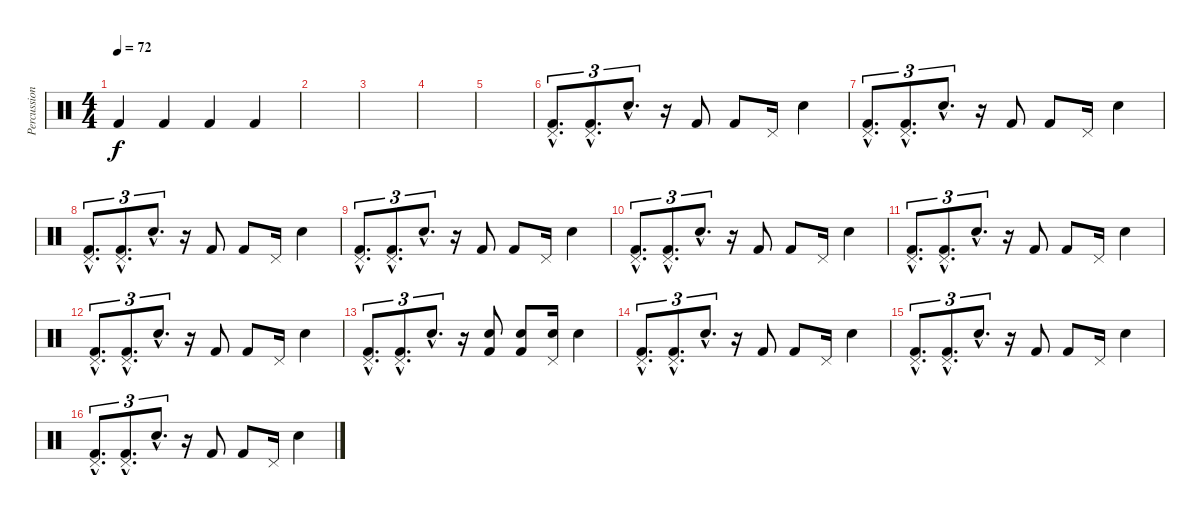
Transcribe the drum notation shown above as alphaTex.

\track ("Percussion" "Percussion") {instrument percussion}
\staff {score}
\articulation defaults
\ts (4 4)
\tempo 72
\clef neutral
\ks c "Kick (hit) 2".4{dy f} "Kick (hit) 2".4 "Kick (hit) 2".4 "Kick (hit) 2".4
|
|
|
|
|
("Kick (hit) 2"{hac} "Pedal Hi-Hat (hit)"{hac}).8{d tu (3 2)} ("Kick (hit) 2"{hac} "Pedal Hi-Hat (hit)"{hac}).8{d tu (3 2)} "Snare (hit) 2"{hac}.8{d tu (3 2)} r.16 "Kick (hit) 2".8 "Kick (hit) 2".8 "Pedal Hi-Hat (hit)".16 "Snare (hit) 2".4 |
("Kick (hit) 2"{hac} "Pedal Hi-Hat (hit)"{hac}).8{d tu (3 2)} ("Kick (hit) 2"{hac} "Pedal Hi-Hat (hit)"{hac}).8{d tu (3 2)} "Snare (hit) 2"{hac}.8{d tu (3 2)} r.16 "Kick (hit) 2".8 "Kick (hit) 2".8 "Pedal Hi-Hat (hit)".16 "Snare (hit) 2".4 |
("Kick (hit) 2"{hac} "Pedal Hi-Hat (hit)"{hac}).8{d tu (3 2)} ("Kick (hit) 2"{hac} "Pedal Hi-Hat (hit)"{hac}).8{d tu (3 2)} "Snare (hit) 2"{hac}.8{d tu (3 2)} r.16 "Kick (hit) 2".8 "Kick (hit) 2".8 "Pedal Hi-Hat (hit)".16 "Snare (hit) 2".4 |
("Kick (hit) 2"{hac} "Pedal Hi-Hat (hit)"{hac}).8{d tu (3 2)} ("Kick (hit) 2"{hac} "Pedal Hi-Hat (hit)"{hac}).8{d tu (3 2)} "Snare (hit) 2"{hac}.8{d tu (3 2)} r.16 "Kick (hit) 2".8 "Kick (hit) 2".8 "Pedal Hi-Hat (hit)".16 "Snare (hit) 2".4 |
("Kick (hit) 2"{hac} "Pedal Hi-Hat (hit)"{hac}).8{d tu (3 2)} ("Kick (hit) 2"{hac} "Pedal Hi-Hat (hit)"{hac}).8{d tu (3 2)} "Snare (hit) 2"{hac}.8{d tu (3 2)} r.16 "Kick (hit) 2".8 "Kick (hit) 2".8 "Pedal Hi-Hat (hit)".16 "Snare (hit) 2".4 |
("Kick (hit) 2"{hac} "Pedal Hi-Hat (hit)"{hac}).8{d tu (3 2)} ("Kick (hit) 2"{hac} "Pedal Hi-Hat (hit)"{hac}).8{d tu (3 2)} "Snare (hit) 2"{hac}.8{d tu (3 2)} r.16 "Kick (hit) 2".8 "Kick (hit) 2".8 "Pedal Hi-Hat (hit)".16 "Snare (hit) 2".4 |
("Kick (hit) 2"{hac} "Pedal Hi-Hat (hit)"{hac}).8{d tu (3 2)} ("Kick (hit) 2"{hac} "Pedal Hi-Hat (hit)"{hac}).8{d tu (3 2)} "Snare (hit) 2"{hac}.8{d tu (3 2)} r.16 "Kick (hit) 2".8 "Kick (hit) 2".8 "Pedal Hi-Hat (hit)".16 "Snare (hit) 2".4 |
("Kick (hit) 2"{hac} "Pedal Hi-Hat (hit)"{hac}).8{d tu (3 2)} ("Kick (hit) 2"{hac} "Pedal Hi-Hat (hit)"{hac}).8{d tu (3 2)} "Snare (hit) 2"{hac}.8{d tu (3 2)} r.16 ("Snare (hit) 2" "Kick (hit) 2").8 ("Snare (hit) 2" "Kick (hit) 2").8 ("Snare (hit) 2" "Pedal Hi-Hat (hit)").16 "Snare (hit) 2".4 |
("Kick (hit) 2"{hac} "Pedal Hi-Hat (hit)"{hac}).8{d tu (3 2)} ("Kick (hit) 2"{hac} "Pedal Hi-Hat (hit)"{hac}).8{d tu (3 2)} "Snare (hit) 2"{hac}.8{d tu (3 2)} r.16 "Kick (hit) 2".8 "Kick (hit) 2".8 "Pedal Hi-Hat (hit)".16 "Snare (hit) 2".4 |
("Kick (hit) 2"{hac} "Pedal Hi-Hat (hit)"{hac}).8{d tu (3 2)} ("Kick (hit) 2"{hac} "Pedal Hi-Hat (hit)"{hac}).8{d tu (3 2)} "Snare (hit) 2"{hac}.8{d tu (3 2)} r.16 "Kick (hit) 2".8 "Kick (hit) 2".8 "Pedal Hi-Hat (hit)".16 "Snare (hit) 2".4 |
("Kick (hit) 2"{hac} "Pedal Hi-Hat (hit)"{hac}).8{d tu (3 2)} ("Kick (hit) 2"{hac} "Pedal Hi-Hat (hit)"{hac}).8{d tu (3 2)} "Snare (hit) 2"{hac}.8{d tu (3 2)} r.16 "Kick (hit) 2".8 "Kick (hit) 2".8 "Pedal Hi-Hat (hit)".16 "Snare (hit) 2".4
